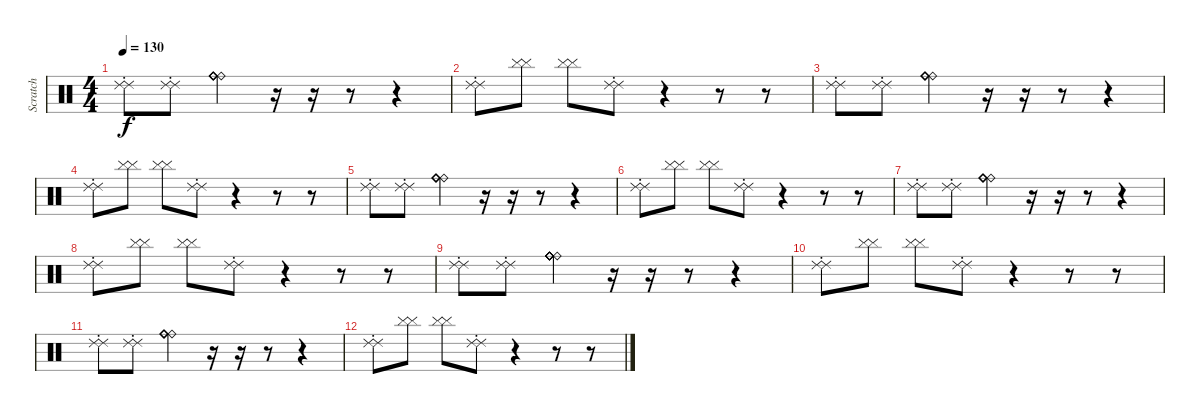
\track ("Scratch" "Scratch") {instrument percussion}
\staff {score}
\articulation defaults
\ts (4 4)
\tempo 130
\clef neutral
\ks c
("Ride (choke) 2" "Ride (choke) 2").8{dy f} ("Ride (choke) 2" "Ride (choke) 2").8 ("Ride (bell)" "Ride (bell)" "Ride (bell)" "Ride (bell)" "Ride (bell)" "Ride (bell)").4 r.16 r.16 r.8 r.4 |
("Ride (choke) 2" "Ride (choke) 2").8 ("Cymbal (hit)" "Cymbal (hit)").8 ("Cymbal (hit)" "Cymbal (hit)").8 ("Ride (choke) 2" "Ride (choke) 2").8 r.4 r.8 r.8 |
("Ride (choke) 2" "Ride (choke) 2").8 ("Ride (choke) 2" "Ride (choke) 2").8 ("Ride (bell)" "Ride (bell)" "Ride (bell)" "Ride (bell)" "Ride (bell)" "Ride (bell)").4 r.16 r.16 r.8 r.4 |
("Ride (choke) 2" "Ride (choke) 2").8 ("Cymbal (hit)" "Cymbal (hit)").8 ("Cymbal (hit)" "Cymbal (hit)").8 ("Ride (choke) 2" "Ride (choke) 2").8 r.4 r.8 r.8 |
("Ride (choke) 2" "Ride (choke) 2").8 ("Ride (choke) 2" "Ride (choke) 2").8 ("Ride (bell)" "Ride (bell)" "Ride (bell)" "Ride (bell)" "Ride (bell)" "Ride (bell)").4 r.16 r.16 r.8 r.4 |
("Ride (choke) 2" "Ride (choke) 2").8 ("Cymbal (hit)" "Cymbal (hit)").8 ("Cymbal (hit)" "Cymbal (hit)").8 ("Ride (choke) 2" "Ride (choke) 2").8 r.4 r.8 r.8 |
("Ride (choke) 2" "Ride (choke) 2").8 ("Ride (choke) 2" "Ride (choke) 2").8 ("Ride (bell)" "Ride (bell)" "Ride (bell)" "Ride (bell)" "Ride (bell)" "Ride (bell)").4 r.16 r.16 r.8 r.4 |
("Ride (choke) 2" "Ride (choke) 2").8 ("Cymbal (hit)" "Cymbal (hit)").8 ("Cymbal (hit)" "Cymbal (hit)").8 ("Ride (choke) 2" "Ride (choke) 2").8 r.4 r.8 r.8 |
("Ride (choke) 2" "Ride (choke) 2").8 ("Ride (choke) 2" "Ride (choke) 2").8 ("Ride (bell)" "Ride (bell)" "Ride (bell)" "Ride (bell)" "Ride (bell)" "Ride (bell)").4 r.16 r.16 r.8 r.4 |
("Ride (choke) 2" "Ride (choke) 2").8 ("Cymbal (hit)" "Cymbal (hit)").8 ("Cymbal (hit)" "Cymbal (hit)").8 ("Ride (choke) 2" "Ride (choke) 2").8 r.4 r.8 r.8 |
("Ride (choke) 2" "Ride (choke) 2").8 ("Ride (choke) 2" "Ride (choke) 2").8 ("Ride (bell)" "Ride (bell)" "Ride (bell)" "Ride (bell)" "Ride (bell)" "Ride (bell)").4 r.16 r.16 r.8 r.4 |
("Ride (choke) 2" "Ride (choke) 2").8 ("Cymbal (hit)" "Cymbal (hit)").8 ("Cymbal (hit)" "Cymbal (hit)").8 ("Ride (choke) 2" "Ride (choke) 2").8 r.4 r.8 r.8
